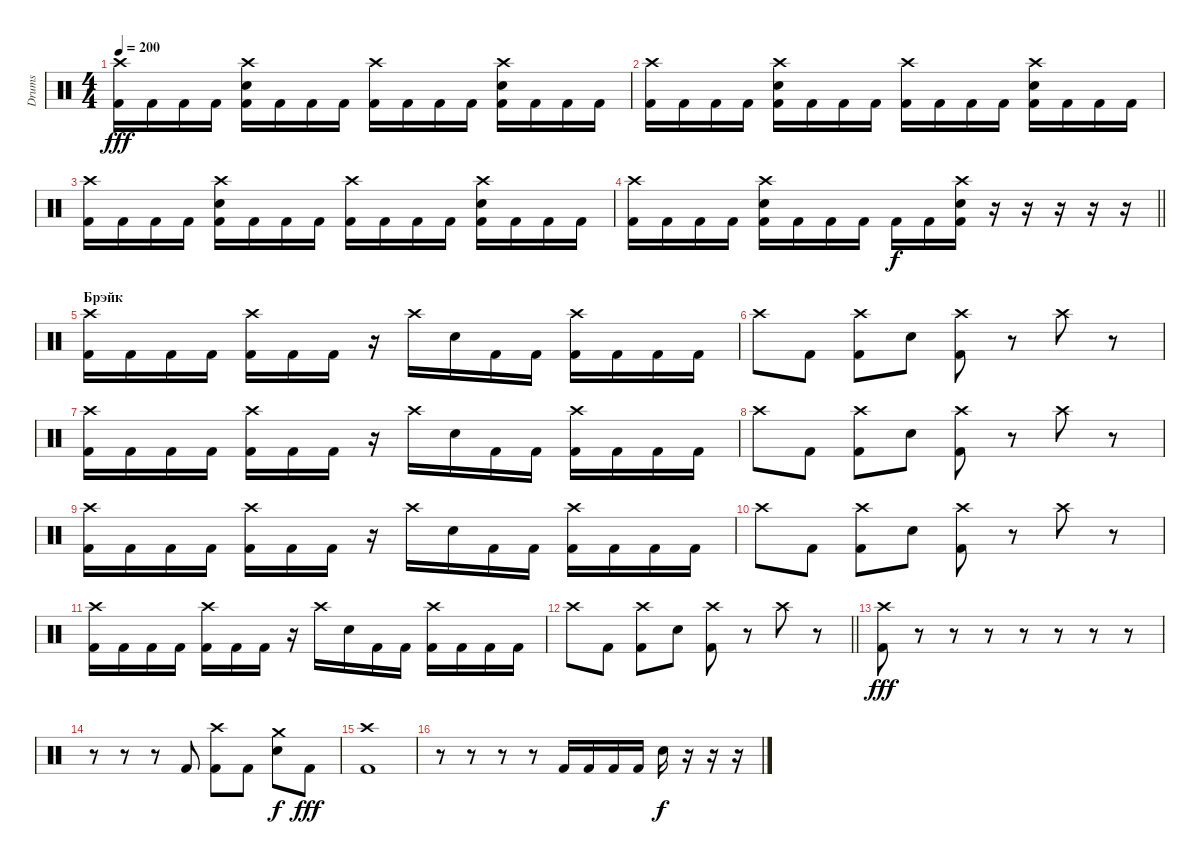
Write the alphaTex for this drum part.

\track ("Drums" "Drums") {instrument percussion}
\staff {score}
\articulation defaults
\ts (4 4)
\tempo 200
\clef neutral
\ks c
("Crash high (hit)" "Kick (hit) 2").16{dy fff} "Kick (hit) 2".16 "Kick (hit) 2".16 "Kick (hit) 2".16 ("Crash high (hit)" "Electric Snare (hit)" "Kick (hit) 2").16 "Kick (hit) 2".16 "Kick (hit) 2".16 "Kick (hit) 2".16 ("Crash high (hit)" "Kick (hit) 2").16 "Kick (hit) 2".16 "Kick (hit) 2".16 "Kick (hit) 2".16 ("Crash high (hit)" "Electric Snare (hit)" "Kick (hit) 2").16 "Kick (hit) 2".16 "Kick (hit) 2".16 "Kick (hit) 2".16 |
("Crash high (hit)" "Kick (hit) 2").16 "Kick (hit) 2".16 "Kick (hit) 2".16 "Kick (hit) 2".16 ("Crash high (hit)" "Electric Snare (hit)" "Kick (hit) 2").16 "Kick (hit) 2".16 "Kick (hit) 2".16 "Kick (hit) 2".16 ("Crash high (hit)" "Kick (hit) 2").16 "Kick (hit) 2".16 "Kick (hit) 2".16 "Kick (hit) 2".16 ("Crash high (hit)" "Electric Snare (hit)" "Kick (hit) 2").16 "Kick (hit) 2".16 "Kick (hit) 2".16 "Kick (hit) 2".16 |
("Crash high (hit)" "Kick (hit) 2").16 "Kick (hit) 2".16 "Kick (hit) 2".16 "Kick (hit) 2".16 ("Crash high (hit)" "Electric Snare (hit)" "Kick (hit) 2").16 "Kick (hit) 2".16 "Kick (hit) 2".16 "Kick (hit) 2".16 ("Crash high (hit)" "Kick (hit) 2").16 "Kick (hit) 2".16 "Kick (hit) 2".16 "Kick (hit) 2".16 ("Crash high (hit)" "Electric Snare (hit)" "Kick (hit) 2").16 "Kick (hit) 2".16 "Kick (hit) 2".16 "Kick (hit) 2".16 |
\barLineRight lightlight
("Crash high (hit)" "Kick (hit) 2").16 "Kick (hit) 2".16 "Kick (hit) 2".16 "Kick (hit) 2".16 ("Crash high (hit)" "Electric Snare (hit)" "Kick (hit) 2").16 "Kick (hit) 2".16 "Kick (hit) 2".16 "Kick (hit) 2".16 "Kick (hit) 2".16{dy f} "Kick (hit) 2".16 ("Crash high (hit)" "Electric Snare (hit)" "Kick (hit) 2").16 r.16 r.16 r.16 r.16 r.16 |
\section ("" "Брэйк")
("Crash high (hit)" "Kick (hit) 2").16 "Kick (hit) 2".16 "Kick (hit) 2".16 "Kick (hit) 2".16 ("Crash high (hit)" "Kick (hit) 2").16 "Kick (hit) 2".16 "Kick (hit) 2".16 r.16 "Crash high (hit)".16 "Electric Snare (hit)".16 "Kick (hit) 2".16 "Kick (hit) 2".16 ("Crash high (hit)" "Kick (hit) 2").16 "Kick (hit) 2".16 "Kick (hit) 2".16 "Kick (hit) 2".16 |
"Crash high (hit)".8 "Kick (hit) 2".8 ("Crash high (hit)" "Kick (hit) 2").8 "Electric Snare (hit)".8 ("Crash high (hit)" "Kick (hit) 2").8 r.8 "Crash high (hit)".8 r.8 |
("Crash high (hit)" "Kick (hit) 2").16 "Kick (hit) 2".16 "Kick (hit) 2".16 "Kick (hit) 2".16 ("Crash high (hit)" "Kick (hit) 2").16 "Kick (hit) 2".16 "Kick (hit) 2".16 r.16 "Crash high (hit)".16 "Electric Snare (hit)".16 "Kick (hit) 2".16 "Kick (hit) 2".16 ("Crash high (hit)" "Kick (hit) 2").16 "Kick (hit) 2".16 "Kick (hit) 2".16 "Kick (hit) 2".16 |
"Crash high (hit)".8 "Kick (hit) 2".8 ("Crash high (hit)" "Kick (hit) 2").8 "Electric Snare (hit)".8 ("Crash high (hit)" "Kick (hit) 2").8 r.8 "Crash high (hit)".8 r.8 |
("Crash high (hit)" "Kick (hit) 2").16 "Kick (hit) 2".16 "Kick (hit) 2".16 "Kick (hit) 2".16 ("Crash high (hit)" "Kick (hit) 2").16 "Kick (hit) 2".16 "Kick (hit) 2".16 r.16 "Crash high (hit)".16 "Electric Snare (hit)".16 "Kick (hit) 2".16 "Kick (hit) 2".16 ("Crash high (hit)" "Kick (hit) 2").16 "Kick (hit) 2".16 "Kick (hit) 2".16 "Kick (hit) 2".16 |
"Crash high (hit)".8 "Kick (hit) 2".8 ("Crash high (hit)" "Kick (hit) 2").8 "Electric Snare (hit)".8 ("Crash high (hit)" "Kick (hit) 2").8 r.8 "Crash high (hit)".8 r.8 |
("Crash high (hit)" "Kick (hit) 2").16 "Kick (hit) 2".16 "Kick (hit) 2".16 "Kick (hit) 2".16 ("Crash high (hit)" "Kick (hit) 2").16 "Kick (hit) 2".16 "Kick (hit) 2".16 r.16 "Crash high (hit)".16 "Electric Snare (hit)".16 "Kick (hit) 2".16 "Kick (hit) 2".16 ("Crash high (hit)" "Kick (hit) 2").16 "Kick (hit) 2".16 "Kick (hit) 2".16 "Kick (hit) 2".16 |
\barLineRight lightlight "Crash high (hit)".8 "Kick (hit) 2".8
("Crash high (hit)" "Kick (hit) 2").8 "Electric Snare (hit)".8 ("Crash high (hit)" "Kick (hit) 2").8 r.8 "Crash high (hit)".8 r.8 |
\section ("" "")
("Crash high (hit)" "Kick (hit) 2").8{dy fff} r.8 r.8 r.8 r.8 r.8 r.8 r.8 |
r.8 r.8 r.8 "Kick (hit) 2".8 ("Crash high (hit)" "Kick (hit) 2").8 "Kick (hit) 2".8 ("Crash medium (hit)" "Electric Snare (hit)").8{dy f} "Kick (hit) 2".8{dy fff} |
("Crash high (hit)" "Kick (hit) 2").1 |
r.8 r.8 r.8 r.8 "Kick (hit) 2".16 "Kick (hit) 2".16 "Kick (hit) 2".16 "Kick (hit) 2".16 "Electric Snare (hit)".16{dy f} r.16 r.16 r.16
